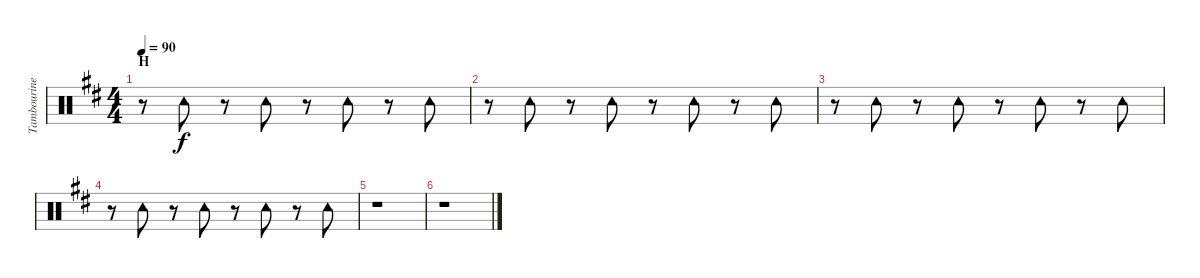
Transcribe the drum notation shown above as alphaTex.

\track ("Tambourine" "Tambourine") {instrument percussion}
\staff {score}
\articulation defaults
\ts (4 4)
\section ("" "H")
\tempo 90
\clef neutral
\ks d
r.8{dy f} "Tambourine (hit)".8 r.8 "Tambourine (hit)".8 r.8 "Tambourine (hit)".8 r.8 "Tambourine (hit)".8 |
r.8 "Tambourine (hit)".8 r.8 "Tambourine (hit)".8 r.8 "Tambourine (hit)".8 r.8 "Tambourine (hit)".8 |
r.8 "Tambourine (hit)".8 r.8 "Tambourine (hit)".8 r.8 "Tambourine (hit)".8 r.8 "Tambourine (hit)".8 |
r.8 "Tambourine (hit)".8 r.8 "Tambourine (hit)".8 r.8 "Tambourine (hit)".8 r.8 "Tambourine (hit)".8 |
r.1 |
r.1
